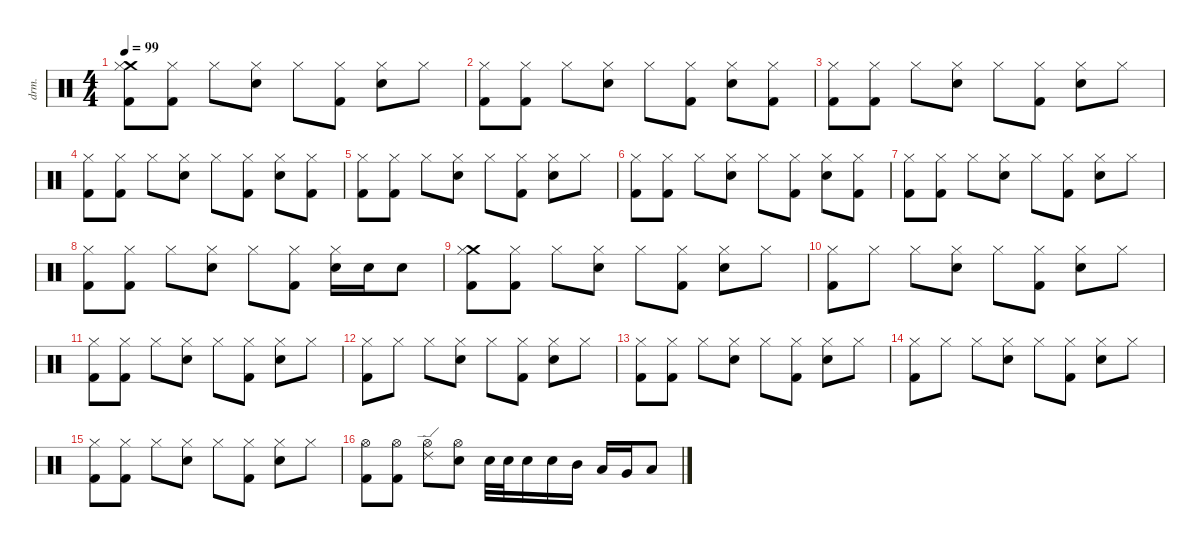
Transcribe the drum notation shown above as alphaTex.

\defaultSystemsLayout 4
\hideDynamics
\bracketExtendMode nobrackets
\otherSystemsTrackNameOrientation horizontal
\track ("Drum" "drm.") {instrument percussion}
\staff {score}
\articulation defaults
\ts (4 4)
\tempo 99
\clef neutral
\ks c
("Crash medium (hit)" "Hi-Hat (closed)" "Kick (hit) 2").8{dy f} ("Hi-Hat (closed)" "Kick (hit) 2").8 "Hi-Hat (closed)".8 ("Hi-Hat (closed)" "Snare (hit) 2").8 "Hi-Hat (closed)".8 ("Hi-Hat (closed)" "Kick (hit) 2").8 ("Hi-Hat (closed)" "Snare (hit) 2").8 "Hi-Hat (closed)".8 |
("Hi-Hat (closed)" "Kick (hit) 2").8 ("Hi-Hat (closed)" "Kick (hit) 2").8 "Hi-Hat (closed)".8 ("Hi-Hat (closed)" "Snare (hit) 2").8 "Hi-Hat (closed)".8 ("Hi-Hat (closed)" "Kick (hit) 2").8 ("Hi-Hat (closed)" "Snare (hit) 2").8 ("Hi-Hat (closed)" "Kick (hit) 2").8 |
("Hi-Hat (closed)" "Kick (hit) 2").8 ("Hi-Hat (closed)" "Kick (hit) 2").8 "Hi-Hat (closed)".8 ("Hi-Hat (closed)" "Snare (hit) 2").8 "Hi-Hat (closed)".8 ("Hi-Hat (closed)" "Kick (hit) 2").8 ("Hi-Hat (closed)" "Snare (hit) 2").8 "Hi-Hat (closed)".8 |
("Hi-Hat (closed)" "Kick (hit) 2").8 ("Hi-Hat (closed)" "Kick (hit) 2").8 "Hi-Hat (closed)".8 ("Hi-Hat (closed)" "Snare (hit) 2").8 "Hi-Hat (closed)".8 ("Hi-Hat (closed)" "Kick (hit) 2").8 ("Hi-Hat (closed)" "Snare (hit) 2").8 ("Hi-Hat (closed)" "Kick (hit) 2").8 |
("Hi-Hat (closed)" "Kick (hit) 2").8 ("Hi-Hat (closed)" "Kick (hit) 2").8 "Hi-Hat (closed)".8 ("Hi-Hat (closed)" "Snare (hit) 2").8 "Hi-Hat (closed)".8 ("Hi-Hat (closed)" "Kick (hit) 2").8 ("Hi-Hat (closed)" "Snare (hit) 2").8 "Hi-Hat (closed)".8 |
("Hi-Hat (closed)" "Kick (hit) 2").8 ("Hi-Hat (closed)" "Kick (hit) 2").8 "Hi-Hat (closed)".8 ("Hi-Hat (closed)" "Snare (hit) 2").8 "Hi-Hat (closed)".8 ("Hi-Hat (closed)" "Kick (hit) 2").8 ("Hi-Hat (closed)" "Snare (hit) 2").8 ("Hi-Hat (closed)" "Kick (hit) 2").8 |
("Hi-Hat (closed)" "Kick (hit) 2").8 ("Hi-Hat (closed)" "Kick (hit) 2").8 "Hi-Hat (closed)".8 ("Hi-Hat (closed)" "Snare (hit) 2").8 "Hi-Hat (closed)".8 ("Hi-Hat (closed)" "Kick (hit) 2").8 ("Hi-Hat (closed)" "Snare (hit) 2").8 "Hi-Hat (closed)".8 |
("Hi-Hat (closed)" "Kick (hit) 2").8 ("Hi-Hat (closed)" "Kick (hit) 2").8 "Hi-Hat (closed)".8 ("Hi-Hat (closed)" "Snare (hit) 2").8 "Hi-Hat (closed)".8 ("Hi-Hat (closed)" "Kick (hit) 2").8 ("Hi-Hat (closed)" "Snare (hit) 2").16 "Snare (hit) 2".16 "Snare (hit) 2".8 |
("Crash medium (hit)" "Hi-Hat (closed)" "Kick (hit) 2").8 ("Hi-Hat (closed)" "Kick (hit) 2").8 "Hi-Hat (closed)".8 ("Hi-Hat (closed)" "Snare (hit) 2").8 "Hi-Hat (closed)".8 ("Hi-Hat (closed)" "Kick (hit) 2").8 ("Hi-Hat (closed)" "Snare (hit) 2").8 "Hi-Hat (closed)".8 |
("Hi-Hat (closed)" "Kick (hit) 2").8 "Hi-Hat (closed)".8 "Hi-Hat (closed)".8 ("Hi-Hat (closed)" "Snare (hit) 2").8 "Hi-Hat (closed)".8 ("Hi-Hat (closed)" "Kick (hit) 2").8 ("Hi-Hat (closed)" "Snare (hit) 2").8 "Hi-Hat (closed)".8 |
("Hi-Hat (closed)" "Kick (hit) 2").8 ("Hi-Hat (closed)" "Kick (hit) 2").8 "Hi-Hat (closed)".8 ("Hi-Hat (closed)" "Snare (hit) 2").8 "Hi-Hat (closed)".8 ("Hi-Hat (closed)" "Kick (hit) 2").8 ("Hi-Hat (closed)" "Snare (hit) 2").8 "Hi-Hat (closed)".8 |
("Hi-Hat (closed)" "Kick (hit) 2").8 "Hi-Hat (closed)".8 "Hi-Hat (closed)".8 ("Hi-Hat (closed)" "Snare (hit) 2").8 "Hi-Hat (closed)".8 ("Hi-Hat (closed)" "Kick (hit) 2").8 ("Hi-Hat (closed)" "Snare (hit) 2").8 "Hi-Hat (closed)".8 |
("Hi-Hat (closed)" "Kick (hit) 2").8 ("Hi-Hat (closed)" "Kick (hit) 2").8 "Hi-Hat (closed)".8 ("Hi-Hat (closed)" "Snare (hit) 2").8 "Hi-Hat (closed)".8 ("Hi-Hat (closed)" "Kick (hit) 2").8 ("Hi-Hat (closed)" "Snare (hit) 2").8 "Hi-Hat (closed)".8 |
("Hi-Hat (closed)" "Kick (hit) 2").8 "Hi-Hat (closed)".8 "Hi-Hat (closed)".8 ("Hi-Hat (closed)" "Snare (hit) 2").8 "Hi-Hat (closed)".8 ("Hi-Hat (closed)" "Kick (hit) 2").8 ("Hi-Hat (closed)" "Snare (hit) 2").8 "Hi-Hat (closed)".8 |
("Hi-Hat (closed)" "Kick (hit) 2").8 ("Hi-Hat (closed)" "Kick (hit) 2").8 "Hi-Hat (closed)".8 ("Hi-Hat (closed)" "Snare (hit) 2").8 "Hi-Hat (closed)".8 ("Hi-Hat (closed)" "Kick (hit) 2").8 ("Hi-Hat (closed)" "Snare (hit) 2").8 "Hi-Hat (closed)".8 |
("Hi-Hat (open)" "Kick (hit) 2").8 ("Hi-Hat (open)" "Kick (hit) 2").8 ("Ride (edge) 2" "Hi-Hat (open)").8 ("Hi-Hat (open)" "Snare (hit) 2").8 "Snare (hit) 2".32 "Snare (hit) 2".32 "Snare (hit) 2".16 "Snare (hit) 2".16 "Mid Tom (hit)".16 "Low Tom (hit)".16 "Very Low Tom (hit)".16 "Low Floor Tom (hit)".8
